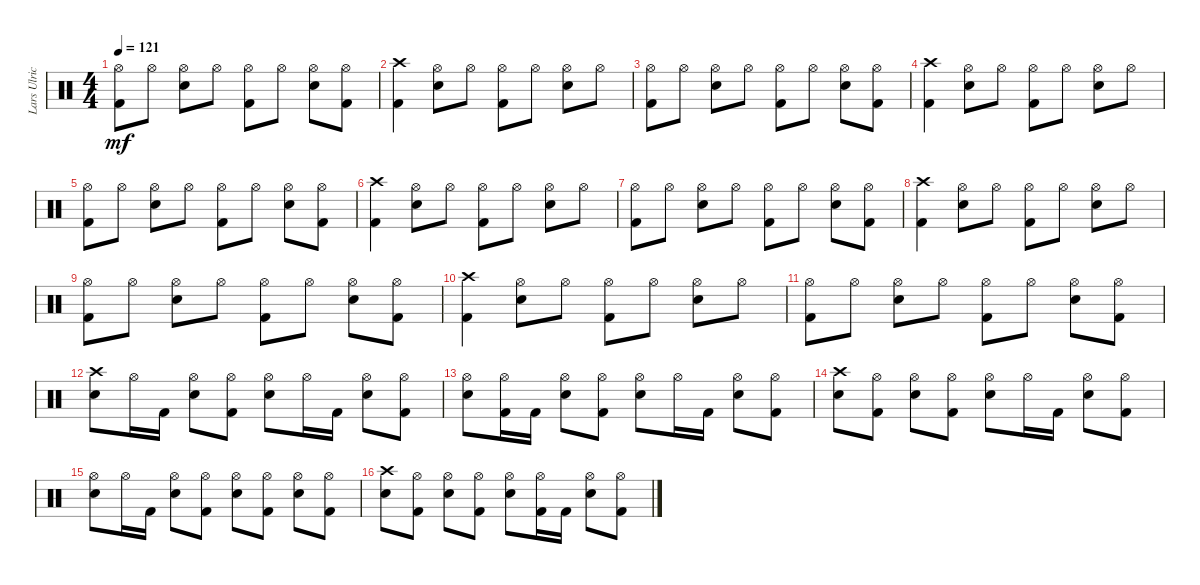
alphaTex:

\track ("Lars Ulrich" "Lars Ulric") {instrument percussion}
\staff {score}
\articulation defaults
\ts (4 4)
\tempo 121
\clef neutral
\ks c
("Hi-Hat (open)" "Kick (hit) 2").8{dy mf} "Hi-Hat (open)".8 ("Hi-Hat (open)" "Snare (hit) 2").8 "Hi-Hat (open)".8 ("Hi-Hat (open)" "Kick (hit) 2").8 "Hi-Hat (open)".8 ("Hi-Hat (open)" "Snare (hit) 2").8 ("Hi-Hat (open)" "Kick (hit) 2").8 |
("Crash high (hit)" "Kick (hit) 2").4 ("Hi-Hat (open)" "Snare (hit) 2").8 "Hi-Hat (open)".8 ("Hi-Hat (open)" "Kick (hit) 2").8 "Hi-Hat (open)".8 ("Hi-Hat (open)" "Snare (hit) 2").8 "Hi-Hat (open)".8 |
("Hi-Hat (open)" "Kick (hit) 2").8 "Hi-Hat (open)".8 ("Hi-Hat (open)" "Snare (hit) 2").8 "Hi-Hat (open)".8 ("Hi-Hat (open)" "Kick (hit) 2").8 "Hi-Hat (open)".8 ("Hi-Hat (open)" "Snare (hit) 2").8 ("Hi-Hat (open)" "Kick (hit) 2").8 |
("Crash high (hit)" "Kick (hit) 2").4 ("Hi-Hat (open)" "Snare (hit) 2").8 "Hi-Hat (open)".8 ("Hi-Hat (open)" "Kick (hit) 2").8 "Hi-Hat (open)".8 ("Hi-Hat (open)" "Snare (hit) 2").8 "Hi-Hat (open)".8 |
("Hi-Hat (open)" "Kick (hit) 2").8 "Hi-Hat (open)".8 ("Hi-Hat (open)" "Snare (hit) 2").8 "Hi-Hat (open)".8 ("Hi-Hat (open)" "Kick (hit) 2").8 "Hi-Hat (open)".8 ("Hi-Hat (open)" "Snare (hit) 2").8 ("Hi-Hat (open)" "Kick (hit) 2").8 |
("Crash high (hit)" "Kick (hit) 2").4 ("Hi-Hat (open)" "Snare (hit) 2").8 "Hi-Hat (open)".8 ("Hi-Hat (open)" "Kick (hit) 2").8 "Hi-Hat (open)".8 ("Hi-Hat (open)" "Snare (hit) 2").8 "Hi-Hat (open)".8 |
("Hi-Hat (open)" "Kick (hit) 2").8 "Hi-Hat (open)".8 ("Hi-Hat (open)" "Snare (hit) 2").8 "Hi-Hat (open)".8 ("Hi-Hat (open)" "Kick (hit) 2").8 "Hi-Hat (open)".8 ("Hi-Hat (open)" "Snare (hit) 2").8 ("Hi-Hat (open)" "Kick (hit) 2").8 |
("Crash high (hit)" "Kick (hit) 2").4 ("Hi-Hat (open)" "Snare (hit) 2").8 "Hi-Hat (open)".8 ("Hi-Hat (open)" "Kick (hit) 2").8 "Hi-Hat (open)".8 ("Hi-Hat (open)" "Snare (hit) 2").8 "Hi-Hat (open)".8 |
("Hi-Hat (open)" "Kick (hit) 2").8 "Hi-Hat (open)".8 ("Hi-Hat (open)" "Snare (hit) 2").8 "Hi-Hat (open)".8 ("Hi-Hat (open)" "Kick (hit) 2").8 "Hi-Hat (open)".8 ("Hi-Hat (open)" "Snare (hit) 2").8 ("Hi-Hat (open)" "Kick (hit) 2").8 |
("Crash high (hit)" "Kick (hit) 2").4 ("Hi-Hat (open)" "Snare (hit) 2").8 "Hi-Hat (open)".8 ("Hi-Hat (open)" "Kick (hit) 2").8 "Hi-Hat (open)".8 ("Hi-Hat (open)" "Snare (hit) 2").8 "Hi-Hat (open)".8 |
("Hi-Hat (open)" "Kick (hit) 2").8 "Hi-Hat (open)".8 ("Hi-Hat (open)" "Snare (hit) 2").8 "Hi-Hat (open)".8 ("Hi-Hat (open)" "Kick (hit) 2").8 "Hi-Hat (open)".8 ("Hi-Hat (open)" "Snare (hit) 2").8 ("Hi-Hat (open)" "Kick (hit) 2").8 |
("Snare (hit) 2" "Crash high (hit)").8 "Hi-Hat (open)".16 "Kick (hit) 2".16 ("Hi-Hat (open)" "Snare (hit) 2").8 ("Hi-Hat (open)" "Kick (hit) 2").8 ("Hi-Hat (open)" "Snare (hit) 2").8 "Hi-Hat (open)".16 "Kick (hit) 2".16 ("Hi-Hat (open)" "Snare (hit) 2").8 ("Hi-Hat (open)" "Kick (hit) 2").8 |
("Snare (hit) 2" "Hi-Hat (open)").8 ("Hi-Hat (open)" "Kick (hit) 2").16 "Kick (hit) 2".16 ("Hi-Hat (open)" "Snare (hit) 2").8 ("Hi-Hat (open)" "Kick (hit) 2").8 ("Hi-Hat (open)" "Snare (hit) 2").8 "Hi-Hat (open)".16 "Kick (hit) 2".16 ("Hi-Hat (open)" "Snare (hit) 2").8 ("Hi-Hat (open)" "Kick (hit) 2").8 |
("Crash high (hit)" "Snare (hit) 2").8 ("Kick (hit) 2" "Hi-Hat (open)").8 ("Hi-Hat (open)" "Snare (hit) 2").8 ("Hi-Hat (open)" "Kick (hit) 2").8 ("Hi-Hat (open)" "Snare (hit) 2").8 "Hi-Hat (open)".16 "Kick (hit) 2".16 ("Hi-Hat (open)" "Snare (hit) 2").8 ("Hi-Hat (open)" "Kick (hit) 2").8 |
("Hi-Hat (open)" "Snare (hit) 2").8 "Hi-Hat (open)".16 "Kick (hit) 2".16 ("Hi-Hat (open)" "Snare (hit) 2").8 ("Hi-Hat (open)" "Kick (hit) 2").8 ("Hi-Hat (open)" "Snare (hit) 2").8 ("Hi-Hat (open)" "Kick (hit) 2").8 ("Hi-Hat (open)" "Snare (hit) 2").8 ("Hi-Hat (open)" "Kick (hit) 2").8 |
("Crash high (hit)" "Snare (hit) 2").8 ("Hi-Hat (open)" "Kick (hit) 2").8 ("Hi-Hat (open)" "Snare (hit) 2").8 ("Hi-Hat (open)" "Kick (hit) 2").8 ("Hi-Hat (open)" "Snare (hit) 2").8 ("Hi-Hat (open)" "Kick (hit) 2").16 "Kick (hit) 2".16 ("Hi-Hat (open)" "Snare (hit) 2").8 ("Hi-Hat (open)" "Kick (hit) 2").8
